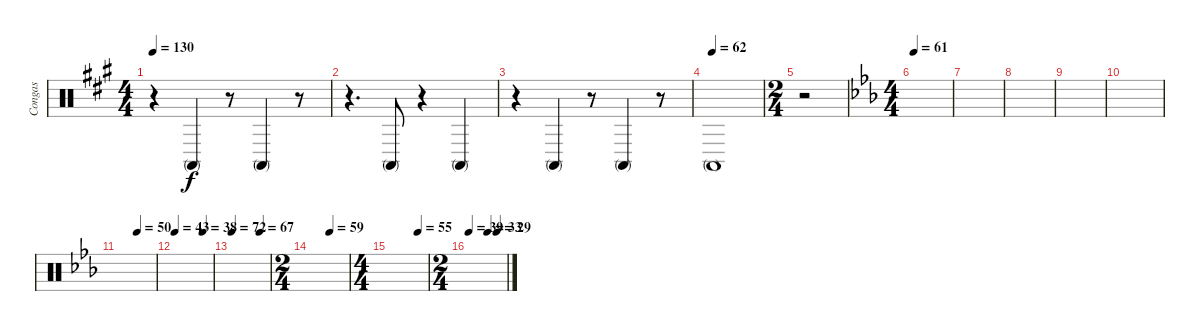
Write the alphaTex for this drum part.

\track ("Congas" "Congas") {instrument percussion}
\staff {score}
\articulation defaults
\ts (4 4)
\tempo 130
\clef neutral
\ks a
r.4{dy f} "Conga high (mute)".4 r.8 "Conga high (mute)".4 r.8 |
r.4{d} "Conga high (mute)".8 r.4 "Conga high (mute)".4 |
r.4 "Conga high (mute)".4 r.8 "Conga high (mute)".4 r.8 |
\tempo (62)
"Conga high (mute)".1 |
\ts (2 4)
r.2 |
\ts (4 4)
\tempo 61
\ks eb
|
|
|
|
|
\tempo (50 0.5)
|
\tempo 43
\tempo (38 0.75)
|
\tempo 72
\tempo (67 0.75)
|
\ts (2 4)
\tempo (59 0.5)
|
\ts (4 4)
\tempo (55 0.75)
|
\ts (2 4)
\tempo 39
\tempo (33 0.5)
\tempo (29 0.75)
